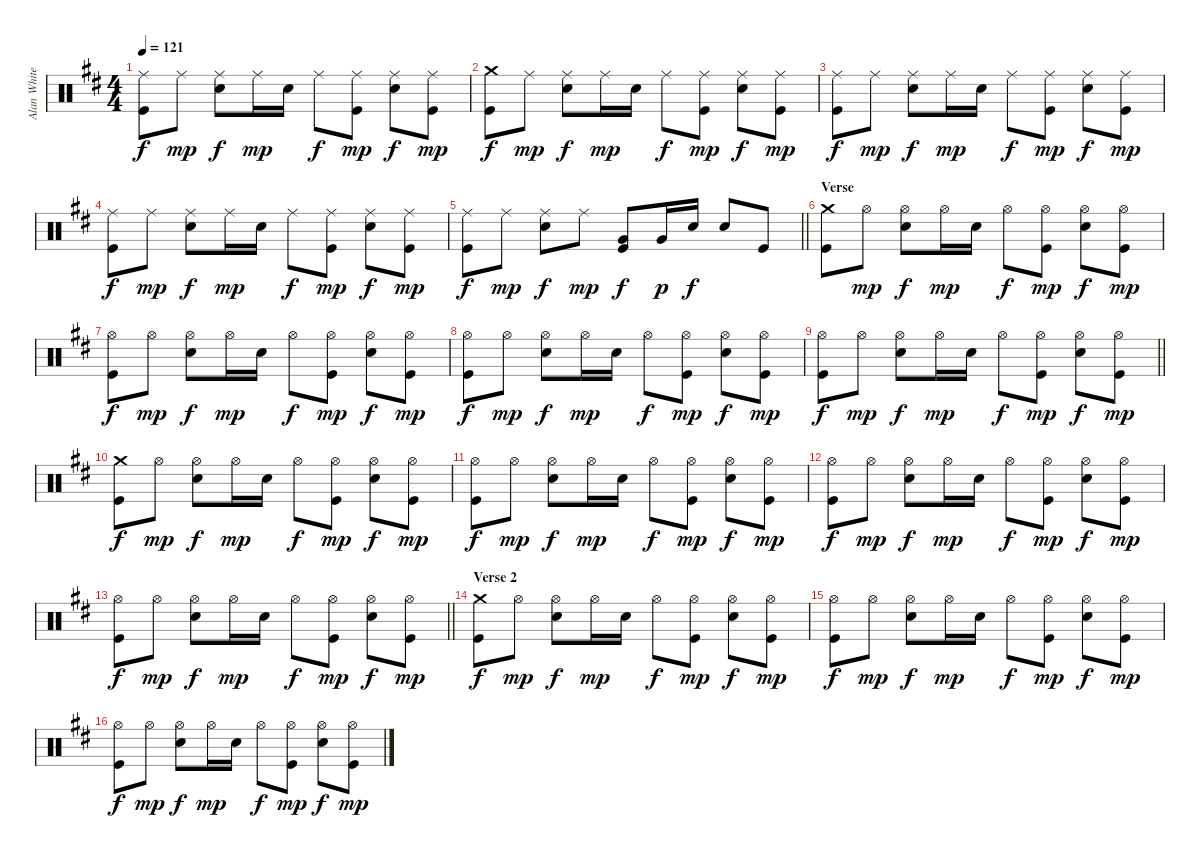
\track ("Alan White" "Alan White") {instrument percussion}
\staff {score}
\articulation defaults
\ts (4 4)
\tempo 121
\clef neutral
\ks d
("Ride (middle)" "Kick (hit)").8{dy f} "Ride (middle)".8{dy mp} ("Ride (middle)" "Electric Snare (hit)").8{dy f} "Ride (middle)".16{dy mp} "Electric Snare (hit)".16 "Ride (middle)".8{dy f} ("Ride (middle)" "Kick (hit)").8{dy mp} ("Ride (middle)" "Electric Snare (hit)").8{dy f} ("Ride (middle)" "Kick (hit)").8{dy mp} |
("Crash medium (hit)" "Kick (hit)").8{dy f} "Ride (middle)".8{dy mp} ("Ride (middle)" "Electric Snare (hit)").8{dy f} "Ride (middle)".16{dy mp} "Electric Snare (hit)".16 "Ride (middle)".8{dy f} ("Ride (middle)" "Kick (hit)").8{dy mp} ("Ride (middle)" "Electric Snare (hit)").8{dy f} ("Ride (middle)" "Kick (hit)").8{dy mp} |
("Ride (middle)" "Kick (hit)").8{dy f} "Ride (middle)".8{dy mp} ("Ride (middle)" "Electric Snare (hit)").8{dy f} "Ride (middle)".16{dy mp} "Electric Snare (hit)".16 "Ride (middle)".8{dy f} ("Ride (middle)" "Kick (hit)").8{dy mp} ("Ride (middle)" "Electric Snare (hit)").8{dy f} ("Ride (middle)" "Kick (hit)").8{dy mp} |
("Ride (middle)" "Kick (hit)").8{dy f} "Ride (middle)".8{dy mp} ("Ride (middle)" "Electric Snare (hit)").8{dy f} "Ride (middle)".16{dy mp} "Electric Snare (hit)".16 "Ride (middle)".8{dy f} ("Ride (middle)" "Kick (hit)").8{dy mp} ("Ride (middle)" "Electric Snare (hit)").8{dy f} ("Ride (middle)" "Kick (hit)").8{dy mp} |
\barLineRight lightlight
("Ride (middle)" "Kick (hit)").8{dy f} "Ride (middle)".8{dy mp} ("Ride (middle)" "Electric Snare (hit)").8{dy f} "Ride (middle)".8{dy mp} ("Very Low Tom (hit)" "Kick (hit)").8{dy f} "Very Low Tom (hit)".16{dy p} "Electric Snare (hit)".16{dy f} "Electric Snare (hit)".8 "Kick (hit)".8 |
\section ("" "Verse")
("Crash medium (hit)" "Kick (hit)").8 "Hi-Hat (open)".8{dy mp} ("Hi-Hat (open)" "Electric Snare (hit)").8{dy f} "Hi-Hat (open)".16{dy mp} "Electric Snare (hit)".16 "Hi-Hat (open)".8{dy f} ("Hi-Hat (open)" "Kick (hit)").8{dy mp} ("Hi-Hat (open)" "Electric Snare (hit)").8{dy f} ("Hi-Hat (open)" "Kick (hit)").8{dy mp} |
("Hi-Hat (open)" "Kick (hit)").8{dy f} "Hi-Hat (open)".8{dy mp} ("Hi-Hat (open)" "Electric Snare (hit)").8{dy f} "Hi-Hat (open)".16{dy mp} "Electric Snare (hit)".16 "Hi-Hat (open)".8{dy f} ("Hi-Hat (open)" "Kick (hit)").8{dy mp} ("Hi-Hat (open)" "Electric Snare (hit)").8{dy f} ("Hi-Hat (open)" "Kick (hit)").8{dy mp} |
("Hi-Hat (open)" "Kick (hit)").8{dy f} "Hi-Hat (open)".8{dy mp} ("Hi-Hat (open)" "Electric Snare (hit)").8{dy f} "Hi-Hat (open)".16{dy mp} "Electric Snare (hit)".16 "Hi-Hat (open)".8{dy f} ("Hi-Hat (open)" "Kick (hit)").8{dy mp} ("Hi-Hat (open)" "Electric Snare (hit)").8{dy f} ("Hi-Hat (open)" "Kick (hit)").8{dy mp} |
\barLineRight lightlight
("Hi-Hat (open)" "Kick (hit)").8{dy f} "Hi-Hat (open)".8{dy mp} ("Hi-Hat (open)" "Electric Snare (hit)").8{dy f} "Hi-Hat (open)".16{dy mp} "Electric Snare (hit)".16 "Hi-Hat (open)".8{dy f} ("Hi-Hat (open)" "Kick (hit)").8{dy mp} ("Hi-Hat (open)" "Electric Snare (hit)").8{dy f} ("Hi-Hat (open)" "Kick (hit)").8{dy mp} |
("Crash medium (hit)" "Kick (hit)").8{dy f} "Hi-Hat (open)".8{dy mp} ("Hi-Hat (open)" "Electric Snare (hit)").8{dy f} "Hi-Hat (open)".16{dy mp} "Electric Snare (hit)".16 "Hi-Hat (open)".8{dy f} ("Hi-Hat (open)" "Kick (hit)").8{dy mp} ("Hi-Hat (open)" "Electric Snare (hit)").8{dy f} ("Hi-Hat (open)" "Kick (hit)").8{dy mp} |
("Hi-Hat (open)" "Kick (hit)").8{dy f} "Hi-Hat (open)".8{dy mp} ("Hi-Hat (open)" "Electric Snare (hit)").8{dy f} "Hi-Hat (open)".16{dy mp} "Electric Snare (hit)".16 "Hi-Hat (open)".8{dy f} ("Hi-Hat (open)" "Kick (hit)").8{dy mp} ("Hi-Hat (open)" "Electric Snare (hit)").8{dy f} ("Hi-Hat (open)" "Kick (hit)").8{dy mp} |
("Hi-Hat (open)" "Kick (hit)").8{dy f} "Hi-Hat (open)".8{dy mp} ("Hi-Hat (open)" "Electric Snare (hit)").8{dy f} "Hi-Hat (open)".16{dy mp} "Electric Snare (hit)".16 "Hi-Hat (open)".8{dy f} ("Hi-Hat (open)" "Kick (hit)").8{dy mp} ("Hi-Hat (open)" "Electric Snare (hit)").8{dy f} ("Hi-Hat (open)" "Kick (hit)").8{dy mp} |
\barLineRight lightlight
("Hi-Hat (open)" "Kick (hit)").8{dy f} "Hi-Hat (open)".8{dy mp} ("Hi-Hat (open)" "Electric Snare (hit)").8{dy f} "Hi-Hat (open)".16{dy mp} "Electric Snare (hit)".16 "Hi-Hat (open)".8{dy f} ("Hi-Hat (open)" "Kick (hit)").8{dy mp} ("Hi-Hat (open)" "Electric Snare (hit)").8{dy f} ("Hi-Hat (open)" "Kick (hit)").8{dy mp} |
\section ("" "Verse 2")
("Crash medium (hit)" "Kick (hit)").8{dy f} "Hi-Hat (open)".8{dy mp} ("Hi-Hat (open)" "Electric Snare (hit)").8{dy f} "Hi-Hat (open)".16{dy mp} "Electric Snare (hit)".16 "Hi-Hat (open)".8{dy f} ("Hi-Hat (open)" "Kick (hit)").8{dy mp} ("Hi-Hat (open)" "Electric Snare (hit)").8{dy f} ("Hi-Hat (open)" "Kick (hit)").8{dy mp} |
("Hi-Hat (open)" "Kick (hit)").8{dy f} "Hi-Hat (open)".8{dy mp} ("Hi-Hat (open)" "Electric Snare (hit)").8{dy f} "Hi-Hat (open)".16{dy mp} "Electric Snare (hit)".16 "Hi-Hat (open)".8{dy f} ("Hi-Hat (open)" "Kick (hit)").8{dy mp} ("Hi-Hat (open)" "Electric Snare (hit)").8{dy f} ("Hi-Hat (open)" "Kick (hit)").8{dy mp} |
("Hi-Hat (open)" "Kick (hit)").8{dy f} "Hi-Hat (open)".8{dy mp} ("Hi-Hat (open)" "Electric Snare (hit)").8{dy f} "Hi-Hat (open)".16{dy mp} "Electric Snare (hit)".16 "Hi-Hat (open)".8{dy f} ("Hi-Hat (open)" "Kick (hit)").8{dy mp} ("Hi-Hat (open)" "Electric Snare (hit)").8{dy f} ("Hi-Hat (open)" "Kick (hit)").8{dy mp}
